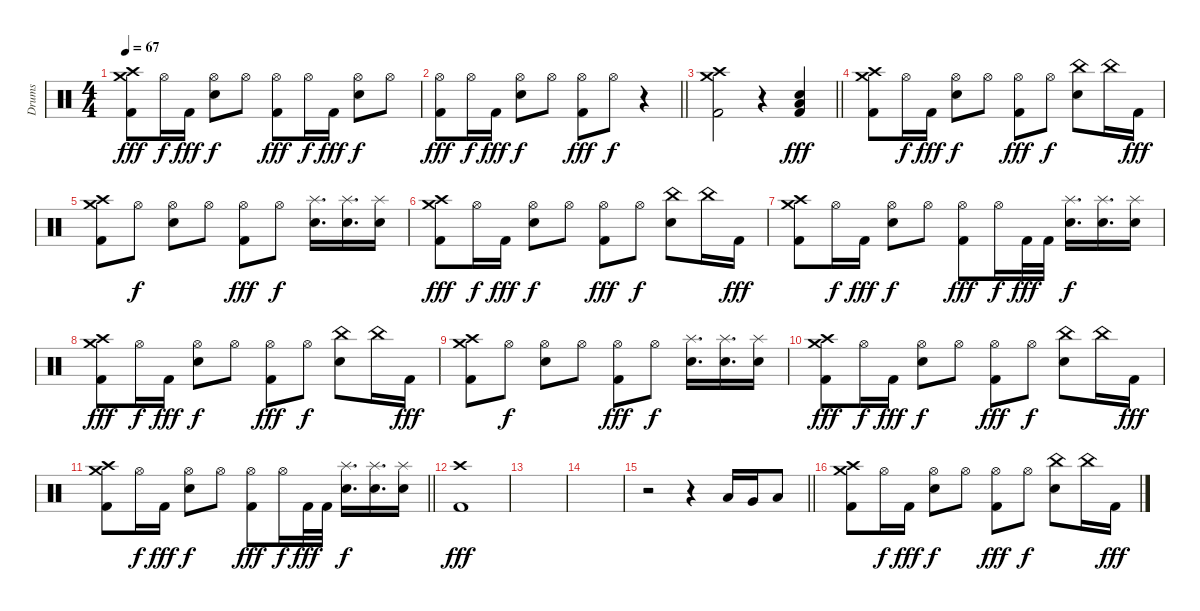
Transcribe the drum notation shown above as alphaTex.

\track ("Drums" "Drums") {instrument percussion}
\staff {score}
\articulation defaults
\ts (4 4)
\tempo 67
\clef neutral
\ks c
("Kick (hit) 2" "Crash high (hit)" "Crash medium (hit)").8{dy fff} "Hi-Hat (open)".16{dy f} "Kick (hit) 2".16{dy fff} ("Electric Snare (hit)" "Hi-Hat (open)").8{dy f} "Hi-Hat (open)".8 ("Kick (hit) 2" "Hi-Hat (open)").8{dy fff} "Hi-Hat (open)".16{dy f} "Kick (hit) 2".16{dy fff} ("Electric Snare (hit)" "Hi-Hat (open)").8{dy f} "Hi-Hat (open)".8 |
\barLineRight lightlight
("Kick (hit) 2" "Hi-Hat (open)").8{dy fff} "Hi-Hat (open)".16{dy f} "Kick (hit) 2".16{dy fff} ("Electric Snare (hit)" "Hi-Hat (open)").8{dy f} "Hi-Hat (open)".8 ("Kick (hit) 2" "Hi-Hat (open)").8{dy fff} "Hi-Hat (open)".8{dy f} r.4 |
\barLineRight lightlight
("Kick (hit) 2" "Crash high (hit)" "Crash medium (hit)").2 r.4 ("Kick (hit) 2" "Electric Snare (hit)" "Low Floor Tom (hit)").4{dy fff} |
("Kick (hit) 2" "Crash high (hit)" "Crash medium (hit)").8 "Hi-Hat (open)".16{dy f} "Kick (hit) 2".16{dy fff} ("Electric Snare (hit)" "Hi-Hat (open)").8{dy f} "Hi-Hat (open)".8 ("Kick (hit) 2" "Hi-Hat (open)").8{dy fff} "Hi-Hat (open)".8{dy f} ("Electric Snare (hit)" "China (hit)").8 "China (hit)".16 "Kick (hit) 2".16{dy fff} |
("Kick (hit) 2" "Crash high (hit)" "Crash medium (hit)").8 "Hi-Hat (open)".8{dy f} ("Electric Snare (hit)" "Hi-Hat (open)").8 "Hi-Hat (open)".8 ("Kick (hit) 2" "Hi-Hat (open)").8{dy fff} "Hi-Hat (open)".8{dy f} ("Electric Snare (hit)" "Splash (hit)").16{d} ("Electric Snare (hit)" "Splash (hit)").16{d} ("Electric Snare (hit)" "Splash (hit)").16 |
("Kick (hit) 2" "Crash high (hit)" "Crash medium (hit)").8{dy fff} "Hi-Hat (open)".16{dy f} "Kick (hit) 2".16{dy fff} ("Electric Snare (hit)" "Hi-Hat (open)").8{dy f} "Hi-Hat (open)".8 ("Kick (hit) 2" "Hi-Hat (open)").8{dy fff} "Hi-Hat (open)".8{dy f} ("Electric Snare (hit)" "China (hit)").8 "China (hit)".16 "Kick (hit) 2".16{dy fff} |
("Kick (hit) 2" "Crash high (hit)" "Crash medium (hit)").8 "Hi-Hat (open)".16{dy f} "Kick (hit) 2".16{dy fff} ("Electric Snare (hit)" "Hi-Hat (open)").8{dy f} "Hi-Hat (open)".8 ("Kick (hit) 2" "Hi-Hat (open)").8{dy fff} "Hi-Hat (open)".16{dy f} "Kick (hit) 2".32{dy fff} "Kick (hit) 2".32 ("Electric Snare (hit)" "Splash (hit)").16{d dy f} ("Electric Snare (hit)" "Splash (hit)").16{d} ("Electric Snare (hit)" "Splash (hit)").16 |
("Kick (hit) 2" "Crash high (hit)" "Crash medium (hit)").8{dy fff} "Hi-Hat (open)".16{dy f} "Kick (hit) 2".16{dy fff} ("Electric Snare (hit)" "Hi-Hat (open)").8{dy f} "Hi-Hat (open)".8 ("Kick (hit) 2" "Hi-Hat (open)").8{dy fff} "Hi-Hat (open)".8{dy f} ("Electric Snare (hit)" "China (hit)").8 "China (hit)".16 "Kick (hit) 2".16{dy fff} |
("Kick (hit) 2" "Crash high (hit)" "Crash medium (hit)").8 "Hi-Hat (open)".8{dy f} ("Electric Snare (hit)" "Hi-Hat (open)").8 "Hi-Hat (open)".8 ("Kick (hit) 2" "Hi-Hat (open)").8{dy fff} "Hi-Hat (open)".8{dy f} ("Electric Snare (hit)" "Splash (hit)").16{d} ("Electric Snare (hit)" "Splash (hit)").16{d} ("Electric Snare (hit)" "Splash (hit)").16 |
("Kick (hit) 2" "Crash high (hit)" "Crash medium (hit)").8{dy fff} "Hi-Hat (open)".16{dy f} "Kick (hit) 2".16{dy fff} ("Electric Snare (hit)" "Hi-Hat (open)").8{dy f} "Hi-Hat (open)".8 ("Kick (hit) 2" "Hi-Hat (open)").8{dy fff} "Hi-Hat (open)".8{dy f} ("Electric Snare (hit)" "China (hit)").8 "China (hit)".16 "Kick (hit) 2".16{dy fff} |
\barLineRight lightlight
("Kick (hit) 2" "Crash high (hit)" "Crash medium (hit)").8 "Hi-Hat (open)".16{dy f} "Kick (hit) 2".16{dy fff} ("Electric Snare (hit)" "Hi-Hat (open)").8{dy f} "Hi-Hat (open)".8 ("Kick (hit) 2" "Hi-Hat (open)").8{dy fff} "Hi-Hat (open)".16{dy f} "Kick (hit) 2".32{dy fff} "Kick (hit) 2".32 ("Electric Snare (hit)" "Splash (hit)").16{d dy f} ("Electric Snare (hit)" "Splash (hit)").16{d} ("Electric Snare (hit)" "Splash (hit)").16 |
("Kick (hit) 2" "Crash high (hit)").1{dy fff} |
|
|
\barLineRight lightlight
r.2 r.4 "Low Tom (hit)".16 "Very Low Tom (hit)".16 "Low Floor Tom (hit)".8 |
("Kick (hit) 2" "Crash high (hit)" "Crash medium (hit)").8 "Hi-Hat (open)".16{dy f} "Kick (hit) 2".16{dy fff} ("Electric Snare (hit)" "Hi-Hat (open)").8{dy f} "Hi-Hat (open)".8 ("Kick (hit) 2" "Hi-Hat (open)").8{dy fff} "Hi-Hat (open)".8{dy f} ("Electric Snare (hit)" "China (hit)").8 "China (hit)".16 "Kick (hit) 2".16{dy fff}
